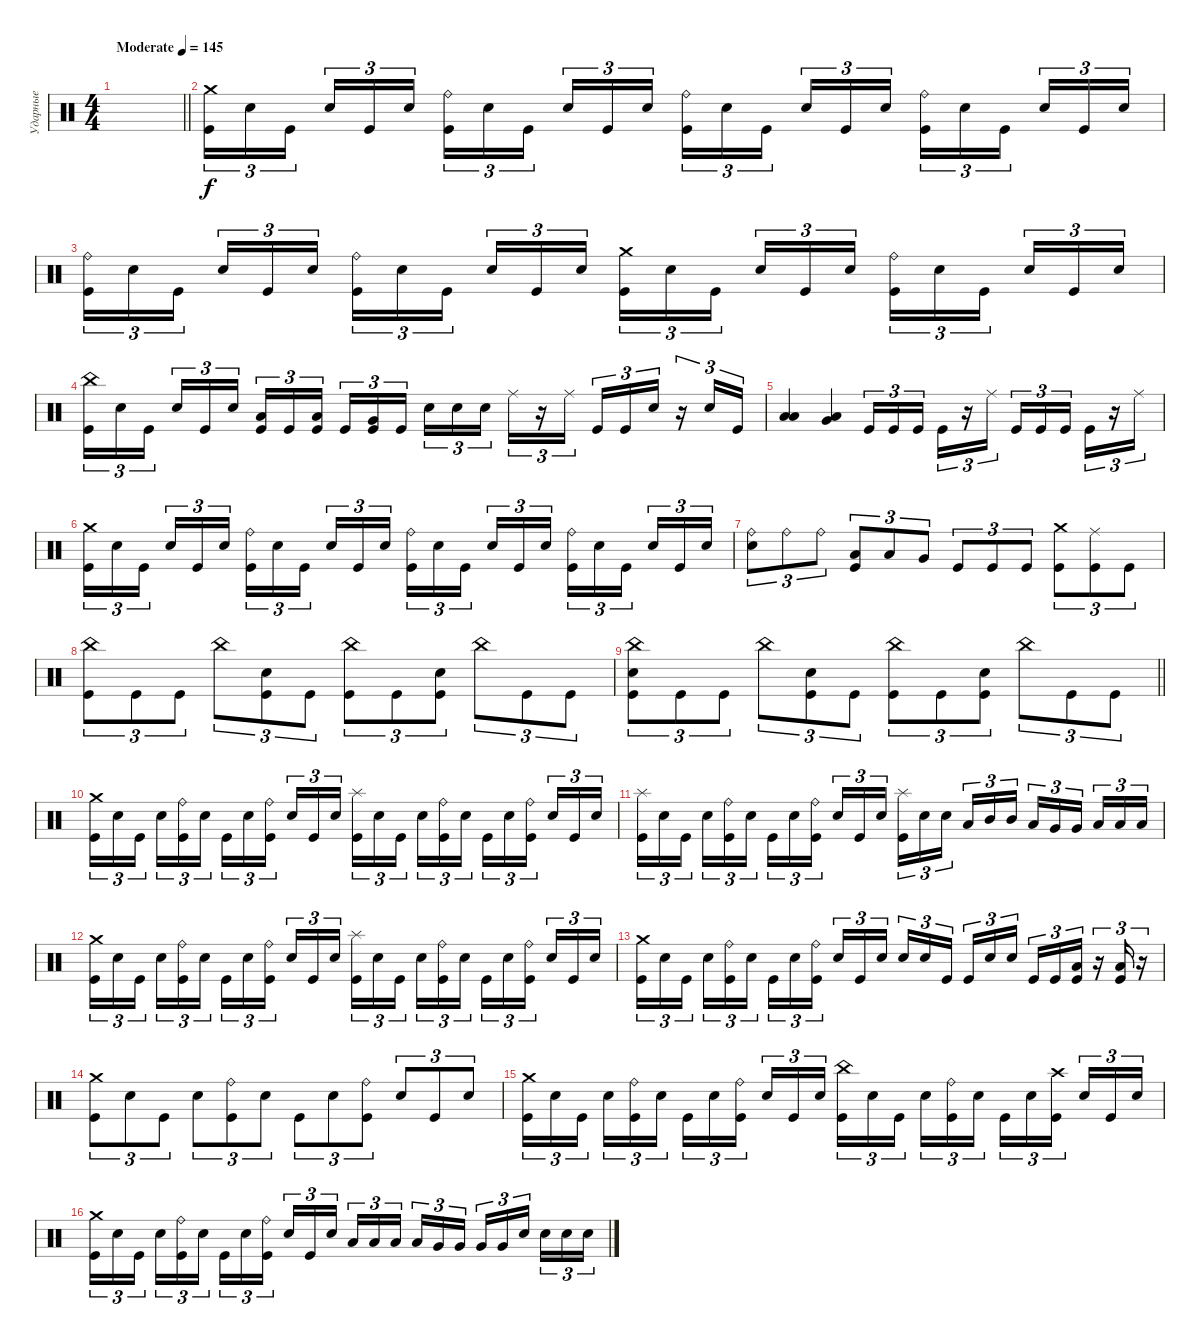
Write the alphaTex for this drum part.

\track ("Ударные" "Ударные") {instrument percussion}
\staff {score}
\articulation defaults
\ts (4 4)
\tempo (145 "Moderate")
\clef neutral
\barLineRight lightlight
\ks c
|
\section ("" " ")
("Crash medium (hit)" "Kick (hit)").16{tu (3 2)} "Electric Snare (hit)".16{tu (3 2)} "Kick (hit)".16{tu (3 2) beam splitsecondary} "Electric Snare (hit)".16{tu (3 2)} "Kick (hit)".16{tu (3 2)} "Electric Snare (hit)".16{tu (3 2)} ("Ride (bell)" "Kick (hit)").16{tu (3 2)} "Electric Snare (hit)".16{tu (3 2)} "Kick (hit)".16{tu (3 2) beam splitsecondary} "Electric Snare (hit)".16{tu (3 2)} "Kick (hit)".16{tu (3 2)} "Electric Snare (hit)".16{tu (3 2)} ("Ride (bell)" "Kick (hit)").16{tu (3 2)} "Electric Snare (hit)".16{tu (3 2)} "Kick (hit)".16{tu (3 2) beam splitsecondary} "Electric Snare (hit)".16{tu (3 2)} "Kick (hit)".16{tu (3 2)} "Electric Snare (hit)".16{tu (3 2)} ("Ride (bell)" "Kick (hit)").16{tu (3 2)} "Electric Snare (hit)".16{tu (3 2)} "Kick (hit)".16{tu (3 2) beam splitsecondary} "Electric Snare (hit)".16{tu (3 2)} "Kick (hit)".16{tu (3 2)} "Electric Snare (hit)".16{tu (3 2)} |
("Ride (bell)" "Kick (hit)").16{tu (3 2)} "Electric Snare (hit)".16{tu (3 2)} "Kick (hit)".16{tu (3 2) beam splitsecondary} "Electric Snare (hit)".16{tu (3 2)} "Kick (hit)".16{tu (3 2)} "Electric Snare (hit)".16{tu (3 2)} ("Ride (bell)" "Kick (hit)").16{tu (3 2)} "Electric Snare (hit)".16{tu (3 2)} "Kick (hit)".16{tu (3 2) beam splitsecondary} "Electric Snare (hit)".16{tu (3 2)} "Kick (hit)".16{tu (3 2)} "Electric Snare (hit)".16{tu (3 2)} ("Crash medium (hit)" "Kick (hit)").16{tu (3 2)} "Electric Snare (hit)".16{tu (3 2)} "Kick (hit)".16{tu (3 2) beam splitsecondary} "Electric Snare (hit)".16{tu (3 2)} "Kick (hit)".16{tu (3 2)} "Electric Snare (hit)".16{tu (3 2)} ("Ride (bell)" "Kick (hit)").16{tu (3 2)} "Electric Snare (hit)".16{tu (3 2)} "Kick (hit)".16{tu (3 2) beam splitsecondary} "Electric Snare (hit)".16{tu (3 2)} "Kick (hit)".16{tu (3 2)} "Electric Snare (hit)".16{tu (3 2)} |
("China (hit)" "Kick (hit)").16{tu (3 2)} "Electric Snare (hit)".16{tu (3 2)} "Kick (hit)".16{tu (3 2) beam splitsecondary} "Electric Snare (hit)".16{tu (3 2)} "Kick (hit)".16{tu (3 2)} "Electric Snare (hit)".16{tu (3 2)} ("Low Tom (hit)" "Kick (hit)").16{tu (3 2)} "Kick (hit)".16{tu (3 2)} ("Low Tom (hit)" "Kick (hit)").16{tu (3 2) beam splitsecondary} "Kick (hit)".16{tu (3 2)} ("Very Low Tom (hit)" "Kick (hit)").16{tu (3 2)} "Kick (hit)".16{tu (3 2)} "Electric Snare (hit)".16{tu (3 2)} "Electric Snare (hit)".16{tu (3 2)} "Electric Snare (hit)".16{tu (3 2) beam splitsecondary} "Ride (middle)".16{tu (3 2)} r.16{tu (3 2)} "Ride (middle)".16{tu (3 2)} "Kick (hit)".16{tu (3 2)} "Kick (hit)".16{tu (3 2)} "Electric Snare (hit)".16{tu (3 2)} r.16{tu (3 2)} "Electric Snare (hit)".16{tu (3 2)} "Kick (hit)".16{tu (3 2)} |
("Low Tom (hit)" "Low Floor Tom (hit)").4 ("Very Low Tom (hit)" "Low Floor Tom (hit)").4 "Kick (hit)".16{tu (3 2)} "Kick (hit)".16{tu (3 2)} "Kick (hit)".16{tu (3 2) beam splitsecondary} "Kick (hit)".16{tu (3 2)} r.16{tu (3 2)} "Ride (middle)".16{tu (3 2)} "Kick (hit)".16{tu (3 2)} "Kick (hit)".16{tu (3 2)} "Kick (hit)".16{tu (3 2) beam splitsecondary} "Kick (hit)".16{tu (3 2)} r.16{tu (3 2)} "Ride (middle)".16{tu (3 2)} |
("Crash medium (hit)" "Kick (hit)").16{tu (3 2)} "Electric Snare (hit)".16{tu (3 2)} "Kick (hit)".16{tu (3 2) beam splitsecondary} "Electric Snare (hit)".16{tu (3 2)} "Kick (hit)".16{tu (3 2)} "Electric Snare (hit)".16{tu (3 2)} ("Ride (bell)" "Kick (hit)").16{tu (3 2)} "Electric Snare (hit)".16{tu (3 2)} "Kick (hit)".16{tu (3 2) beam splitsecondary} "Electric Snare (hit)".16{tu (3 2)} "Kick (hit)".16{tu (3 2)} "Electric Snare (hit)".16{tu (3 2)} ("Ride (bell)" "Kick (hit)").16{tu (3 2)} "Electric Snare (hit)".16{tu (3 2)} "Kick (hit)".16{tu (3 2) beam splitsecondary} "Electric Snare (hit)".16{tu (3 2)} "Kick (hit)".16{tu (3 2)} "Electric Snare (hit)".16{tu (3 2)} ("Ride (bell)" "Kick (hit)").16{tu (3 2)} "Electric Snare (hit)".16{tu (3 2)} "Kick (hit)".16{tu (3 2) beam splitsecondary} "Electric Snare (hit)".16{tu (3 2)} "Kick (hit)".16{tu (3 2)} "Electric Snare (hit)".16{tu (3 2)} |
("Ride (bell)" "Electric Snare (hit)").8{tu (3 2)} "Ride (bell)".8{tu (3 2)} "Ride (bell)".8{tu (3 2)} ("Low Tom (hit)" "Kick (hit)").8{tu (3 2)} "Low Tom (hit)".8{tu (3 2)} "Very Low Tom (hit)".8{tu (3 2)} "Kick (hit)".8{tu (3 2)} "Kick (hit)".8{tu (3 2)} "Kick (hit)".8{tu (3 2)} ("Crash medium (hit)" "Kick (hit)").8{tu (3 2)} ("Ride (middle)" "Kick (hit)").8{tu (3 2)} "Kick (hit)".8{tu (3 2)} |
("China (hit)" "Kick (hit)").8{tu (3 2)} "Kick (hit)".8{tu (3 2)} "Kick (hit)".8{tu (3 2)} "China (hit)".8{tu (3 2)} ("Electric Snare (hit)" "Kick (hit)").8{tu (3 2)} "Kick (hit)".8{tu (3 2)} ("China (hit)" "Kick (hit)").8{tu (3 2)} "Kick (hit)".8{tu (3 2)} ("Electric Snare (hit)" "Kick (hit)").8{tu (3 2)} "China (hit)".8{tu (3 2)} "Kick (hit)".8{tu (3 2)} "Kick (hit)".8{tu (3 2)} |
\barLineRight lightlight
("China (hit)" "Electric Snare (hit)" "Kick (hit)").8{tu (3 2)} "Kick (hit)".8{tu (3 2)} "Kick (hit)".8{tu (3 2)} "China (hit)".8{tu (3 2)} ("Electric Snare (hit)" "Kick (hit)").8{tu (3 2)} "Kick (hit)".8{tu (3 2)} ("China (hit)" "Kick (hit)").8{tu (3 2)} "Kick (hit)".8{tu (3 2)} ("Electric Snare (hit)" "Kick (hit)").8{tu (3 2)} "China (hit)".8{tu (3 2)} "Kick (hit)".8{tu (3 2)} "Kick (hit)".8{tu (3 2)} |
\section ("" " ")
("Crash medium (hit)" "Kick (hit)").16{tu (3 2)} "Electric Snare (hit)".16{tu (3 2)} "Kick (hit)".16{tu (3 2) beam splitsecondary} "Electric Snare (hit)".16{tu (3 2)} ("Ride (bell)" "Kick (hit)").16{tu (3 2)} "Electric Snare (hit)".16{tu (3 2)} "Kick (hit)".16{tu (3 2)} "Electric Snare (hit)".16{tu (3 2)} ("Ride (bell)" "Kick (hit)").16{tu (3 2) beam splitsecondary} "Electric Snare (hit)".16{tu (3 2)} "Kick (hit)".16{tu (3 2)} "Electric Snare (hit)".16{tu (3 2)} ("Splash (hit)" "Kick (hit)").16{tu (3 2)} "Electric Snare (hit)".16{tu (3 2)} "Kick (hit)".16{tu (3 2) beam splitsecondary} "Electric Snare (hit)".16{tu (3 2)} ("Ride (bell)" "Kick (hit)").16{tu (3 2)} "Electric Snare (hit)".16{tu (3 2)} "Kick (hit)".16{tu (3 2)} "Electric Snare (hit)".16{tu (3 2)} ("Ride (bell)" "Kick (hit)").16{tu (3 2) beam splitsecondary} "Electric Snare (hit)".16{tu (3 2)} "Kick (hit)".16{tu (3 2)} "Electric Snare (hit)".16{tu (3 2)} |
("Splash (hit)" "Kick (hit)").16{tu (3 2)} "Electric Snare (hit)".16{tu (3 2)} "Kick (hit)".16{tu (3 2) beam splitsecondary} "Electric Snare (hit)".16{tu (3 2)} ("Ride (bell)" "Kick (hit)").16{tu (3 2)} "Electric Snare (hit)".16{tu (3 2)} "Kick (hit)".16{tu (3 2)} "Electric Snare (hit)".16{tu (3 2)} ("Ride (bell)" "Kick (hit)").16{tu (3 2) beam splitsecondary} "Electric Snare (hit)".16{tu (3 2)} "Kick (hit)".16{tu (3 2)} "Electric Snare (hit)".16{tu (3 2)} ("Splash (hit)" "Kick (hit)").16{tu (3 2)} "Electric Snare (hit)".16{tu (3 2)} "Electric Snare (hit)".16{tu (3 2) beam splitsecondary} "Low Tom (hit)".16{tu (3 2)} "Mid Tom (hit)".16{tu (3 2)} "Mid Tom (hit)".16{tu (3 2)} "Low Tom (hit)".16{tu (3 2)} "Very Low Tom (hit)".16{tu (3 2)} "Very Low Tom (hit)".16{tu (3 2) beam splitsecondary} "Low Floor Tom (hit)".16{tu (3 2)} "Low Floor Tom (hit)".16{tu (3 2)} "Low Floor Tom (hit)".16{tu (3 2)} |
("Crash medium (hit)" "Kick (hit)").16{tu (3 2)} "Electric Snare (hit)".16{tu (3 2)} "Kick (hit)".16{tu (3 2) beam splitsecondary} "Electric Snare (hit)".16{tu (3 2)} ("Ride (bell)" "Kick (hit)").16{tu (3 2)} "Electric Snare (hit)".16{tu (3 2)} "Kick (hit)".16{tu (3 2)} "Electric Snare (hit)".16{tu (3 2)} ("Ride (bell)" "Kick (hit)").16{tu (3 2) beam splitsecondary} "Electric Snare (hit)".16{tu (3 2)} "Kick (hit)".16{tu (3 2)} "Electric Snare (hit)".16{tu (3 2)} ("Splash (hit)" "Kick (hit)").16{tu (3 2)} "Electric Snare (hit)".16{tu (3 2)} "Kick (hit)".16{tu (3 2) beam splitsecondary} "Electric Snare (hit)".16{tu (3 2)} ("Ride (bell)" "Kick (hit)").16{tu (3 2)} "Electric Snare (hit)".16{tu (3 2)} "Kick (hit)".16{tu (3 2)} "Electric Snare (hit)".16{tu (3 2)} ("Ride (bell)" "Kick (hit)").16{tu (3 2) beam splitsecondary} "Electric Snare (hit)".16{tu (3 2)} "Kick (hit)".16{tu (3 2)} "Electric Snare (hit)".16{tu (3 2)} |
("Crash medium (hit)" "Kick (hit)").16{tu (3 2)} "Electric Snare (hit)".16{tu (3 2)} "Kick (hit)".16{tu (3 2) beam splitsecondary} "Electric Snare (hit)".16{tu (3 2)} ("Ride (bell)" "Kick (hit)").16{tu (3 2)} "Electric Snare (hit)".16{tu (3 2)} "Kick (hit)".16{tu (3 2)} "Electric Snare (hit)".16{tu (3 2)} ("Ride (bell)" "Kick (hit)").16{tu (3 2) beam splitsecondary} "Electric Snare (hit)".16{tu (3 2)} "Kick (hit)".16{tu (3 2)} "Electric Snare (hit)".16{tu (3 2)} "Electric Snare (hit)".16{tu (3 2)} "Electric Snare (hit)".16{tu (3 2)} "Kick (hit)".16{tu (3 2) beam splitsecondary} "Kick (hit)".16{tu (3 2)} "Electric Snare (hit)".16{tu (3 2)} "Electric Snare (hit)".16{tu (3 2)} "Kick (hit)".16{tu (3 2)} "Kick (hit)".16{tu (3 2)} ("Low Floor Tom (hit)" "Kick (hit)").16{tu (3 2)} r.16{tu (3 2)} ("Low Floor Tom (hit)" "Kick (hit)").16{tu (3 2)} r.16{tu (3 2)} |
("Crash medium (hit)" "Kick (hit)").8{tu (3 2)} "Electric Snare (hit)".8{tu (3 2)} "Kick (hit)".8{tu (3 2)} "Electric Snare (hit)".8{tu (3 2)} ("Ride (bell)" "Kick (hit)").8{tu (3 2)} "Electric Snare (hit)".8{tu (3 2)} "Kick (hit)".8{tu (3 2)} "Electric Snare (hit)".8{tu (3 2)} ("Ride (bell)" "Kick (hit)").8{tu (3 2)} "Electric Snare (hit)".8{tu (3 2)} "Kick (hit)".8{tu (3 2)} "Electric Snare (hit)".8{tu (3 2)} |
("Crash medium (hit)" "Kick (hit)").16{tu (3 2)} "Electric Snare (hit)".16{tu (3 2)} "Kick (hit)".16{tu (3 2) beam splitsecondary} "Electric Snare (hit)".16{tu (3 2)} ("Ride (bell)" "Kick (hit)").16{tu (3 2)} "Electric Snare (hit)".16{tu (3 2)} "Kick (hit)".16{tu (3 2)} "Electric Snare (hit)".16{tu (3 2)} ("Ride (bell)" "Kick (hit)").16{tu (3 2) beam splitsecondary} "Electric Snare (hit)".16{tu (3 2)} "Kick (hit)".16{tu (3 2)} "Electric Snare (hit)".16{tu (3 2)} ("China (hit)" "Kick (hit)").16{tu (3 2)} "Electric Snare (hit)".16{tu (3 2)} "Kick (hit)".16{tu (3 2) beam splitsecondary} "Electric Snare (hit)".16{tu (3 2)} ("Ride (bell)" "Kick (hit)").16{tu (3 2)} "Electric Snare (hit)".16{tu (3 2)} "Kick (hit)".16{tu (3 2)} "Electric Snare (hit)".16{tu (3 2)} ("Crash high (hit)" "Kick (hit)").16{tu (3 2) beam splitsecondary} "Electric Snare (hit)".16{tu (3 2)} "Kick (hit)".16{tu (3 2)} "Electric Snare (hit)".16{tu (3 2)} |
("Crash medium (hit)" "Kick (hit)").16{tu (3 2)} "Electric Snare (hit)".16{tu (3 2)} "Kick (hit)".16{tu (3 2) beam splitsecondary} "Electric Snare (hit)".16{tu (3 2)} ("Ride (bell)" "Kick (hit)").16{tu (3 2)} "Electric Snare (hit)".16{tu (3 2)} "Kick (hit)".16{tu (3 2)} "Electric Snare (hit)".16{tu (3 2)} ("Ride (bell)" "Kick (hit)").16{tu (3 2) beam splitsecondary} "Electric Snare (hit)".16{tu (3 2)} "Kick (hit)".16{tu (3 2)} "Electric Snare (hit)".16{tu (3 2)} "Low Tom (hit)".16{tu (3 2)} "Low Tom (hit)".16{tu (3 2)} "Low Tom (hit)".16{tu (3 2) beam splitsecondary} "Low Tom (hit)".16{tu (3 2)} "Very Low Tom (hit)".16{tu (3 2)} "Very Low Tom (hit)".16{tu (3 2)} "Very Low Tom (hit)".16{tu (3 2)} "Very Low Tom (hit)".16{tu (3 2)} "Electric Snare (hit)".16{tu (3 2) beam splitsecondary} "Electric Snare (hit)".16{tu (3 2)} "Electric Snare (hit)".16{tu (3 2)} "Electric Snare (hit)".16{tu (3 2)}
